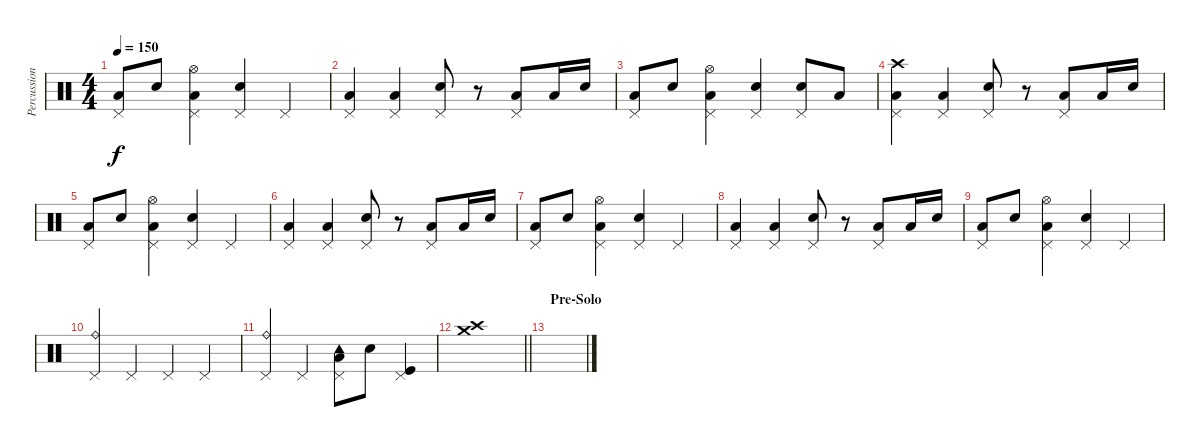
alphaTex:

\track ("Percussions" "Percussion") {instrument percussion}
\staff {score}
\articulation defaults
\ts (4 4)
\tempo 150
\clef neutral
\ks c
("Low Floor Tom (hit)" "Pedal Hi-Hat (hit)").8{dy f} "Electric Snare (hit)".8 ("Low Floor Tom (hit)" "Pedal Hi-Hat (hit)" "Hi-Hat (open)").4 ("Electric Snare (hit)" "Pedal Hi-Hat (hit)").4 "Pedal Hi-Hat (hit)".4 |
("Low Floor Tom (hit)" "Pedal Hi-Hat (hit)").4 ("Low Floor Tom (hit)" "Pedal Hi-Hat (hit)").4 ("Pedal Hi-Hat (hit)" "Electric Snare (hit)").8 r.8 ("Pedal Hi-Hat (hit)" "Low Floor Tom (hit)").8 "Low Floor Tom (hit)".16 "Electric Snare (hit)".16 |
("Low Floor Tom (hit)" "Pedal Hi-Hat (hit)").8 "Electric Snare (hit)".8 ("Low Floor Tom (hit)" "Pedal Hi-Hat (hit)" "Hi-Hat (open)").4 ("Electric Snare (hit)" "Pedal Hi-Hat (hit)").4 ("Pedal Hi-Hat (hit)" "Electric Snare (hit)").8 "Low Floor Tom (hit)".8 |
("Low Floor Tom (hit)" "Pedal Hi-Hat (hit)" "Crash high (hit)").4 ("Low Floor Tom (hit)" "Pedal Hi-Hat (hit)").4 ("Pedal Hi-Hat (hit)" "Electric Snare (hit)").8 r.8 ("Pedal Hi-Hat (hit)" "Low Floor Tom (hit)").8 "Low Floor Tom (hit)".16 "Electric Snare (hit)".16 |
("Low Floor Tom (hit)" "Pedal Hi-Hat (hit)").8 "Electric Snare (hit)".8 ("Low Floor Tom (hit)" "Pedal Hi-Hat (hit)" "Hi-Hat (open)").4 ("Electric Snare (hit)" "Pedal Hi-Hat (hit)").4 "Pedal Hi-Hat (hit)".4 |
("Low Floor Tom (hit)" "Pedal Hi-Hat (hit)").4 ("Low Floor Tom (hit)" "Pedal Hi-Hat (hit)").4 ("Pedal Hi-Hat (hit)" "Electric Snare (hit)").8 r.8 ("Pedal Hi-Hat (hit)" "Low Floor Tom (hit)").8 "Low Floor Tom (hit)".16 "Electric Snare (hit)".16 |
("Low Floor Tom (hit)" "Pedal Hi-Hat (hit)").8 "Electric Snare (hit)".8 ("Low Floor Tom (hit)" "Pedal Hi-Hat (hit)" "Hi-Hat (open)").4 ("Electric Snare (hit)" "Pedal Hi-Hat (hit)").4 "Pedal Hi-Hat (hit)".4 |
("Low Floor Tom (hit)" "Pedal Hi-Hat (hit)").4 ("Low Floor Tom (hit)" "Pedal Hi-Hat (hit)").4 ("Pedal Hi-Hat (hit)" "Electric Snare (hit)").8 r.8 ("Pedal Hi-Hat (hit)" "Low Floor Tom (hit)").8 "Low Floor Tom (hit)".16 "Electric Snare (hit)".16 |
("Low Floor Tom (hit)" "Pedal Hi-Hat (hit)").8 "Electric Snare (hit)".8 ("Low Floor Tom (hit)" "Pedal Hi-Hat (hit)" "Hi-Hat (open)").4 ("Electric Snare (hit)" "Pedal Hi-Hat (hit)").4 "Pedal Hi-Hat (hit)".4 |
("Ride (bell)" "Pedal Hi-Hat (hit)").4 "Pedal Hi-Hat (hit)".4 "Pedal Hi-Hat (hit)".4 "Pedal Hi-Hat (hit)".4 |
("Ride (bell)" "Pedal Hi-Hat (hit)").4 "Pedal Hi-Hat (hit)".4 ("Pedal Hi-Hat (hit)" "Tambourine (hit)" "Low Floor Tom (hit)").8 "Electric Snare (hit)".8 ("Kick (hit)" "Pedal Hi-Hat (hit)").4 |
\barLineRight lightlight
("Crash high (hit)" "Crash medium (hit)").1 |
\section ("" "Pre-Solo")
